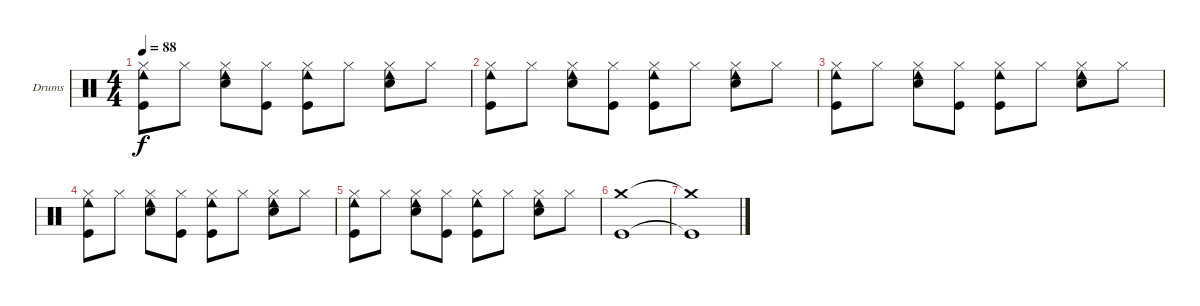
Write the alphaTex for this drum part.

\bracketExtendMode groupsimilarinstruments
\firstSystemTrackNameOrientation horizontal
\otherSystemsTrackNameOrientation horizontal
\track ("Drumkit" "Drums") {instrument percussion}
\staff {score}
\articulation defaults
\ts (4 4)
\tempo 88
\clef neutral
\ks c
("Kick (hit)" "Hi-Hat (closed)" "Cowbell low (hit)").8{dy f} "Hi-Hat (closed)".8 ("Snare (hit) 2" "Hi-Hat (closed)" "Cowbell low (hit)").8 ("Kick (hit)" "Hi-Hat (closed)").8 ("Kick (hit)" "Hi-Hat (closed)" "Cowbell low (hit)").8 "Hi-Hat (closed)".8 ("Snare (hit) 2" "Hi-Hat (closed)" "Cowbell low (hit)").8 "Hi-Hat (closed)".8 |
("Kick (hit)" "Hi-Hat (closed)" "Cowbell low (hit)").8 "Hi-Hat (closed)".8 ("Snare (hit) 2" "Hi-Hat (closed)" "Cowbell low (hit)").8 ("Kick (hit)" "Hi-Hat (closed)").8 ("Kick (hit)" "Hi-Hat (closed)" "Cowbell low (hit)").8 "Hi-Hat (closed)".8 ("Snare (hit) 2" "Hi-Hat (closed)" "Cowbell low (hit)").8 "Hi-Hat (closed)".8 |
("Kick (hit)" "Hi-Hat (closed)" "Cowbell low (hit)").8 "Hi-Hat (closed)".8 ("Snare (hit) 2" "Hi-Hat (closed)" "Cowbell low (hit)").8 ("Kick (hit)" "Hi-Hat (closed)").8 ("Kick (hit)" "Hi-Hat (closed)" "Cowbell low (hit)").8 "Hi-Hat (closed)".8 ("Snare (hit) 2" "Hi-Hat (closed)" "Cowbell low (hit)").8 "Hi-Hat (closed)".8 |
("Kick (hit)" "Hi-Hat (closed)" "Cowbell low (hit)").8 "Hi-Hat (closed)".8 ("Snare (hit) 2" "Hi-Hat (closed)" "Cowbell low (hit)").8 ("Kick (hit)" "Hi-Hat (closed)").8 ("Kick (hit)" "Hi-Hat (closed)" "Cowbell low (hit)").8 "Hi-Hat (closed)".8 ("Snare (hit) 2" "Hi-Hat (closed)" "Cowbell low (hit)").8 "Hi-Hat (closed)".8 |
("Kick (hit)" "Hi-Hat (closed)" "Cowbell low (hit)").8 "Hi-Hat (closed)".8 ("Snare (hit) 2" "Hi-Hat (closed)" "Cowbell low (hit)").8 ("Kick (hit)" "Hi-Hat (closed)").8 ("Kick (hit)" "Hi-Hat (closed)" "Cowbell low (hit)").8 "Hi-Hat (closed)".8 ("Snare (hit) 2" "Hi-Hat (closed)" "Cowbell low (hit)").8 "Hi-Hat (closed)".8 |
("Kick (hit)" "Crash medium (hit)").1 |
("Kick (hit)"{t} "Crash medium (hit)"{t}).1
